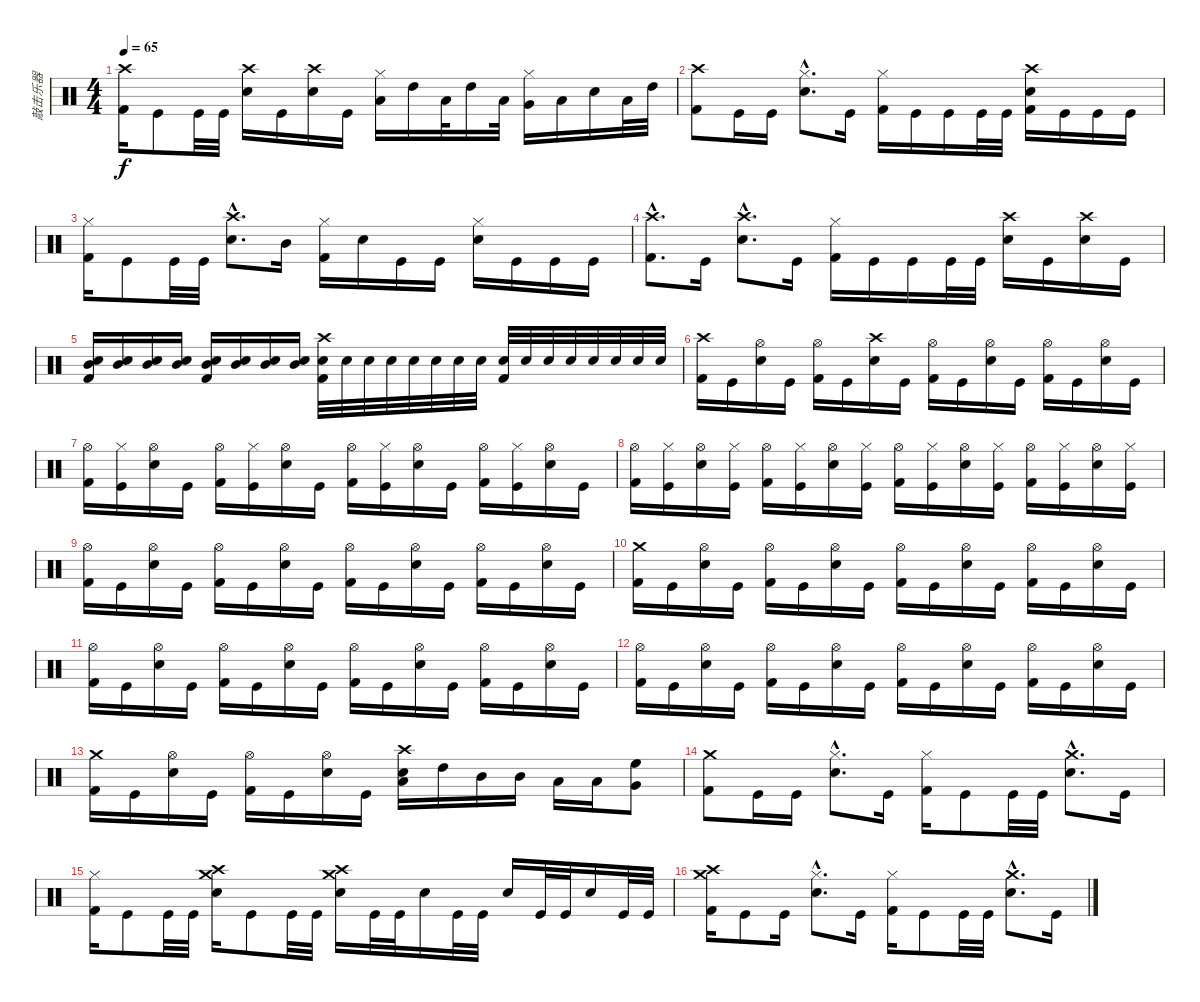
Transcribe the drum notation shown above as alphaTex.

\track ("敲击乐器" "敲击乐器") {instrument percussion}
\staff {score}
\articulation defaults
\ts (4 4)
\tempo 65
\clef neutral
\ks c
("Crash high (hit)" "Kick (hit) 2").16{dy f} "Kick (hit)".8 "Kick (hit)".32 "Kick (hit)".32 ("Crash high (hit)" "Electric Snare (hit)").16 "Kick (hit)".16 ("Crash high (hit)" "Electric Snare (hit)").16 "Kick (hit)".16 ("Hi-Hat (closed)" "Low Tom (hit)").16 "High Tom (hit)".16 "Low Tom (hit)".32 "High Tom (hit)".16 "Low Tom (hit)".32 ("Hi-Hat (closed)" "Very Low Tom (hit)").16 "Low Tom (hit)".16 "Snare (hit) 2".16 "Low Tom (hit)".32 "High Tom (hit)".32 |
("Crash high (hit)" "Kick (hit) 2").8 "Kick (hit)".16 "Kick (hit)".16 ("Hi-Hat (closed)"{hac} "Electric Snare (hit)"{hac}).8{d} "Kick (hit)".16 ("Hi-Hat (closed)" "Kick (hit) 2").16 "Kick (hit)".16 "Kick (hit)".16 "Kick (hit)".32 "Kick (hit)".32 ("Crash high (hit)" "Electric Snare (hit)" "Kick (hit) 2").16 "Kick (hit)".16 "Kick (hit)".16 "Kick (hit)".16 |
("Hi-Hat (closed)" "Kick (hit) 2").16 "Kick (hit)".8 "Kick (hit)".32 "Kick (hit)".32 ("Crash high (hit)"{hac} "Electric Snare (hit)"{hac}).8{d} "Mid Tom (hit)".16 ("Hi-Hat (closed)" "Kick (hit) 2").16 "Electric Snare (hit)".16 "Kick (hit)".16 "Kick (hit)".16 ("Hi-Hat (closed)" "Electric Snare (hit)").16 "Kick (hit)".16 "Kick (hit)".16 "Kick (hit)".16 |
("Crash high (hit)"{hac} "Kick (hit) 2"{hac}).8{d} "Kick (hit)".16 ("Crash high (hit)"{hac} "Electric Snare (hit)"{hac}).8{d} "Kick (hit)".16 ("Hi-Hat (closed)" "Kick (hit) 2").16 "Kick (hit)".16 "Kick (hit)".16 "Kick (hit)".32 "Kick (hit)".32 ("Crash high (hit)" "Electric Snare (hit)").16 "Kick (hit)".16 ("Crash high (hit)" "Electric Snare (hit)").16 "Kick (hit)".16 |
("Electric Snare (hit)" "Mid Tom (hit)" "Kick (hit) 2").16{volume 6} ("Electric Snare (hit)" "Mid Tom (hit)").16{volume 6} ("Electric Snare (hit)" "Mid Tom (hit)").16{volume 7} ("Electric Snare (hit)" "Mid Tom (hit)").16{volume 10} ("Electric Snare (hit)" "Mid Tom (hit)" "Kick (hit) 2").16{volume 11} ("Electric Snare (hit)" "Mid Tom (hit)").16{volume 12} ("Electric Snare (hit)" "Mid Tom (hit)").16{volume 13} ("Electric Snare (hit)" "Mid Tom (hit)").16{volume 16} ("Crash high (hit)" "Electric Snare (hit)" "Kick (hit) 2").32{volume 8} "Electric Snare (hit)".32 "Electric Snare (hit)".32{volume 10} "Electric Snare (hit)".32 "Electric Snare (hit)".32 "Electric Snare (hit)".32{volume 11} "Electric Snare (hit)".32 "Electric Snare (hit)".32 ("Electric Snare (hit)" "Kick (hit) 2").32{volume 13} "Electric Snare (hit)".32 "Electric Snare (hit)".32 "Electric Snare (hit)".32{volume 15} "Electric Snare (hit)".32 "Electric Snare (hit)".32{volume 16} "Electric Snare (hit)".32 "Electric Snare (hit)".32 |
("Crash high (hit)" "Kick (hit) 2").16 "Kick (hit)".16 ("Hi-Hat (open)" "Electric Snare (hit)").16 "Kick (hit)".16 ("Hi-Hat (open)" "Kick (hit) 2").16 "Kick (hit)".16 ("Crash high (hit)" "Electric Snare (hit)").16 "Kick (hit)".16 ("Hi-Hat (open)" "Kick (hit) 2").16 "Kick (hit)".16 ("Hi-Hat (open)" "Electric Snare (hit)").16 "Kick (hit)".16 ("Hi-Hat (open)" "Kick (hit) 2").16 "Kick (hit)".16 ("Hi-Hat (open)" "Electric Snare (hit)").16 "Kick (hit)".16 |
("Hi-Hat (open)" "Kick (hit) 2").16 ("Hi-Hat (closed)" "Kick (hit)").16 ("Hi-Hat (open)" "Electric Snare (hit)").16 "Kick (hit)".16 ("Hi-Hat (open)" "Kick (hit) 2").16 ("Hi-Hat (closed)" "Kick (hit)").16 ("Hi-Hat (open)" "Electric Snare (hit)").16 "Kick (hit)".16 ("Hi-Hat (open)" "Kick (hit) 2").16 ("Hi-Hat (closed)" "Kick (hit)").16 ("Hi-Hat (open)" "Electric Snare (hit)").16 "Kick (hit)".16 ("Hi-Hat (open)" "Kick (hit) 2").16 ("Hi-Hat (closed)" "Kick (hit)").16 ("Hi-Hat (open)" "Electric Snare (hit)").16 "Kick (hit)".16 |
("Hi-Hat (open)" "Kick (hit) 2").16 ("Hi-Hat (closed)" "Kick (hit)").16 ("Hi-Hat (open)" "Electric Snare (hit)").16 ("Hi-Hat (closed)" "Kick (hit)").16 ("Hi-Hat (open)" "Kick (hit) 2").16 ("Hi-Hat (closed)" "Kick (hit)").16 ("Hi-Hat (open)" "Electric Snare (hit)").16 ("Hi-Hat (closed)" "Kick (hit)").16 ("Hi-Hat (open)" "Kick (hit) 2").16 ("Hi-Hat (closed)" "Kick (hit)").16 ("Hi-Hat (open)" "Electric Snare (hit)").16 ("Hi-Hat (closed)" "Kick (hit)").16 ("Hi-Hat (open)" "Kick (hit) 2").16 ("Hi-Hat (closed)" "Kick (hit)").16 ("Hi-Hat (open)" "Electric Snare (hit)").16 ("Hi-Hat (closed)" "Kick (hit)").16 |
("Hi-Hat (open)" "Kick (hit) 2").16 "Kick (hit)".16 ("Hi-Hat (open)" "Electric Snare (hit)").16 "Kick (hit)".16 ("Hi-Hat (open)" "Kick (hit) 2").16 "Kick (hit)".16 ("Hi-Hat (open)" "Electric Snare (hit)").16 "Kick (hit)".16 ("Hi-Hat (open)" "Kick (hit) 2").16 "Kick (hit)".16 ("Hi-Hat (open)" "Electric Snare (hit)").16 "Kick (hit)".16 ("Hi-Hat (open)" "Kick (hit) 2").16 "Kick (hit)".16 ("Hi-Hat (open)" "Electric Snare (hit)").16 "Kick (hit)".16 |
("Crash medium (hit)" "Kick (hit) 2").16 "Kick (hit)".16 ("Hi-Hat (open)" "Electric Snare (hit)").16 "Kick (hit)".16 ("Hi-Hat (open)" "Kick (hit) 2").16 "Kick (hit)".16 ("Hi-Hat (open)" "Electric Snare (hit)").16 "Kick (hit)".16 ("Hi-Hat (open)" "Kick (hit) 2").16 "Kick (hit)".16 ("Hi-Hat (open)" "Electric Snare (hit)").16 "Kick (hit)".16 ("Hi-Hat (open)" "Kick (hit) 2").16 "Kick (hit)".16 ("Hi-Hat (open)" "Electric Snare (hit)").16 "Kick (hit)".16 |
("Hi-Hat (open)" "Kick (hit) 2").16 "Kick (hit)".16 ("Hi-Hat (open)" "Electric Snare (hit)").16 "Kick (hit)".16 ("Hi-Hat (open)" "Kick (hit) 2").16 "Kick (hit)".16 ("Hi-Hat (open)" "Electric Snare (hit)").16 "Kick (hit)".16 ("Hi-Hat (open)" "Kick (hit) 2").16 "Kick (hit)".16 ("Hi-Hat (open)" "Electric Snare (hit)").16 "Kick (hit)".16 ("Hi-Hat (open)" "Kick (hit) 2").16 "Kick (hit)".16 ("Hi-Hat (open)" "Electric Snare (hit)").16 "Kick (hit)".16 |
("Hi-Hat (open)" "Kick (hit) 2").16 "Kick (hit)".16 ("Hi-Hat (open)" "Electric Snare (hit)").16 "Kick (hit)".16 ("Hi-Hat (open)" "Kick (hit) 2").16 "Kick (hit)".16 ("Hi-Hat (open)" "Electric Snare (hit)").16 "Kick (hit)".16 ("Hi-Hat (open)" "Kick (hit) 2").16 "Kick (hit)".16 ("Hi-Hat (open)" "Electric Snare (hit)").16 "Kick (hit)".16 ("Hi-Hat (open)" "Kick (hit) 2").16 "Kick (hit)".16 ("Hi-Hat (open)" "Electric Snare (hit)").16 "Kick (hit)".16 |
("Crash medium (hit)" "Kick (hit) 2").16{volume 16} "Kick (hit)".16 ("Hi-Hat (open)" "Electric Snare (hit)").16 "Kick (hit)".16 ("Hi-Hat (open)" "Kick (hit) 2").16 "Kick (hit)".16 ("Hi-Hat (open)" "Electric Snare (hit)").16 "Kick (hit)".16 ("Crash high (hit)" "Snare (hit) 2" "Low Floor Tom (hit)").16 "High Tom (hit)".16 "Mid Tom (hit)".16 "Mid Tom (hit)".16 "Low Tom (hit)".16 "Low Tom (hit)".16 ("High Floor Tom (hit)" "Very Low Tom (hit)").8 |
("Crash medium (hit)" "Kick (hit) 2").8 "Kick (hit)".16 "Kick (hit)".16 ("Hi-Hat (closed)"{hac} "Electric Snare (hit)"{hac}).8{d} "Kick (hit)".16 ("Hi-Hat (closed)" "Kick (hit) 2").16 "Kick (hit)".8 "Kick (hit)".32 "Kick (hit)".32 ("Crash medium (hit)"{hac} "Electric Snare (hit)"{hac}).8{d} "Kick (hit)".16 |
("Hi-Hat (closed)" "Kick (hit) 2").16 "Kick (hit)".8 "Kick (hit)".32 "Kick (hit)".32 ("Crash medium (hit)" "Crash high (hit)" "Electric Snare (hit)").16 "Kick (hit)".8 "Kick (hit)".32 "Kick (hit)".32 ("Crash medium (hit)" "Crash high (hit)" "Electric Snare (hit)").16 "Kick (hit)".32 "Kick (hit)".32 "Electric Snare (hit)".16 "Kick (hit)".32 "Kick (hit)".32 "Electric Snare (hit)".16 "Kick (hit)".32 "Kick (hit)".32 "Electric Snare (hit)".16 "Kick (hit)".32 "Kick (hit)".32 |
("Crash medium (hit)" "Crash high (hit)" "Kick (hit) 2").16 "Kick (hit)".8 "Kick (hit)".16 ("Hi-Hat (closed)"{hac} "Electric Snare (hit)"{hac}).8{d} "Kick (hit)".16 ("Hi-Hat (closed)" "Kick (hit) 2").16 "Kick (hit)".8 "Kick (hit)".32 "Kick (hit)".32 ("Crash medium (hit)"{hac} "Electric Snare (hit)"{hac}).8{d} "Kick (hit)".16
